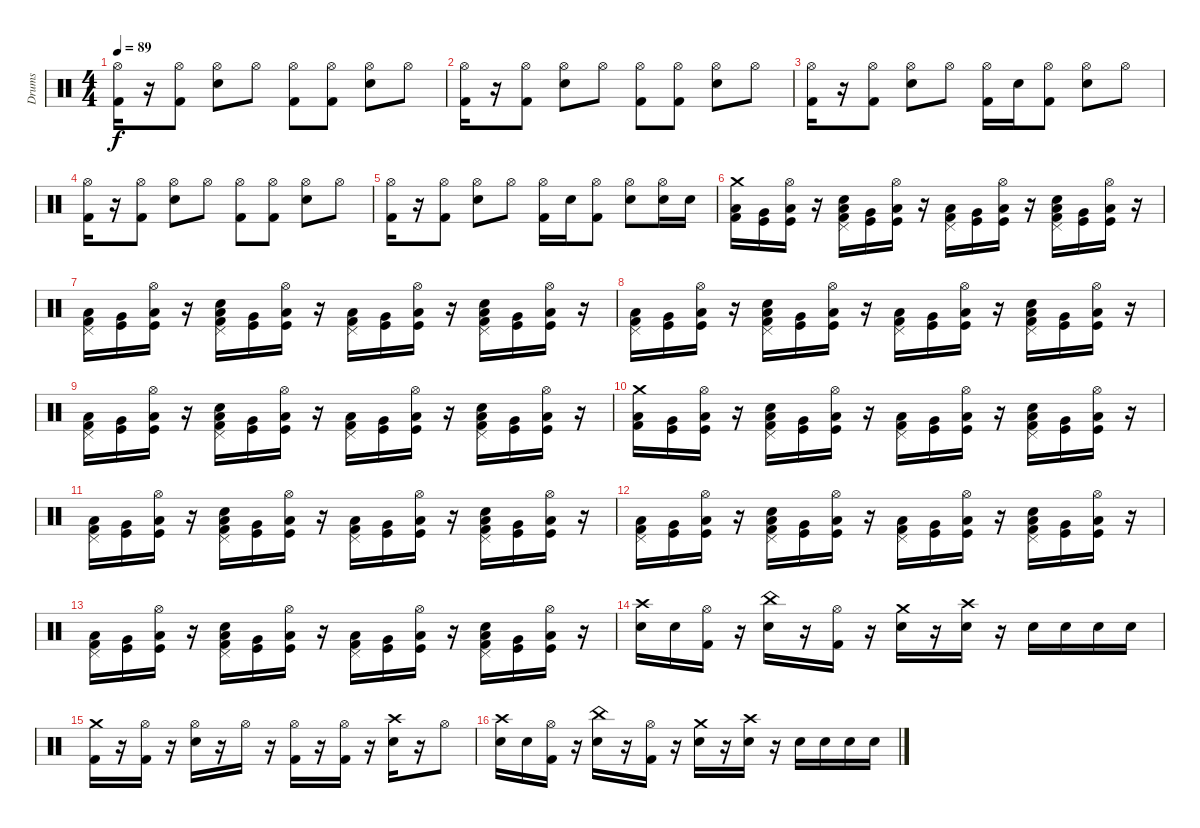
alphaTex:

\track ("Drums" "Drums") {instrument percussion}
\staff {score}
\articulation defaults
\ts (4 4)
\tempo 89
\clef neutral
\ks c
("Kick (hit) 2" "Hi-Hat (open)").16{dy f} r.16 ("Kick (hit) 2" "Hi-Hat (open)").8 ("Snare (hit) 2" "Hi-Hat (open)").8 "Hi-Hat (open)".8 ("Kick (hit) 2" "Hi-Hat (open)").8 ("Kick (hit) 2" "Hi-Hat (open)").8 ("Snare (hit) 2" "Hi-Hat (open)").8 "Hi-Hat (open)".8 |
("Kick (hit) 2" "Hi-Hat (open)").16 r.16 ("Kick (hit) 2" "Hi-Hat (open)").8 ("Snare (hit) 2" "Hi-Hat (open)").8 "Hi-Hat (open)".8 ("Kick (hit) 2" "Hi-Hat (open)").8 ("Kick (hit) 2" "Hi-Hat (open)").8 ("Snare (hit) 2" "Hi-Hat (open)").8 "Hi-Hat (open)".8 |
("Kick (hit) 2" "Hi-Hat (open)").16 r.16 ("Kick (hit) 2" "Hi-Hat (open)").8 ("Snare (hit) 2" "Hi-Hat (open)").8 "Hi-Hat (open)".8 ("Kick (hit) 2" "Hi-Hat (open)").16 "Snare (hit) 2".16 ("Kick (hit) 2" "Hi-Hat (open)").8 ("Snare (hit) 2" "Hi-Hat (open)").8 "Hi-Hat (open)".8 |
("Kick (hit) 2" "Hi-Hat (open)").16 r.16 ("Kick (hit) 2" "Hi-Hat (open)").8 ("Snare (hit) 2" "Hi-Hat (open)").8 "Hi-Hat (open)".8 ("Kick (hit) 2" "Hi-Hat (open)").8 ("Kick (hit) 2" "Hi-Hat (open)").8 ("Snare (hit) 2" "Hi-Hat (open)").8 "Hi-Hat (open)".8 |
("Kick (hit) 2" "Hi-Hat (open)").16 r.16 ("Kick (hit) 2" "Hi-Hat (open)").8 ("Snare (hit) 2" "Hi-Hat (open)").8 "Hi-Hat (open)".8 ("Kick (hit) 2" "Hi-Hat (open)").16 "Snare (hit) 2".16 ("Kick (hit) 2" "Hi-Hat (open)").8 ("Snare (hit) 2" "Hi-Hat (open)").8 ("Snare (hit) 2" "Hi-Hat (open)").16 "Snare (hit) 2".16 |
("Kick (hit) 2" "Crash medium (hit)" "Low Tom (hit)").16 ("Very Low Tom (hit)" "Kick (hit)").16 ("Hi-Hat (open)" "Low Floor Tom (hit)" "Kick (hit)").16 r.16 ("Kick (hit) 2" "Pedal Hi-Hat (hit)" "Snare (hit) 2" "Low Tom (hit)").16 ("Kick (hit)" "Very Low Tom (hit)").16 ("Hi-Hat (open)" "Kick (hit)" "Low Floor Tom (hit)").16 r.16 ("Pedal Hi-Hat (hit)" "Kick (hit) 2" "Low Tom (hit)").16 ("Kick (hit)" "Very Low Tom (hit)").16 ("Hi-Hat (open)" "Kick (hit)" "Low Floor Tom (hit)").16 r.16 ("Kick (hit) 2" "Pedal Hi-Hat (hit)" "Snare (hit) 2" "Low Tom (hit)").16 ("Kick (hit)" "Very Low Tom (hit)").16 ("Hi-Hat (open)" "Kick (hit)" "Low Floor Tom (hit)").16 r.16 |
("Kick (hit) 2" "Pedal Hi-Hat (hit)" "Low Tom (hit)").16 ("Kick (hit)" "Very Low Tom (hit)").16 ("Hi-Hat (open)" "Kick (hit)" "Low Floor Tom (hit)").16 r.16 ("Kick (hit) 2" "Pedal Hi-Hat (hit)" "Snare (hit) 2" "Low Tom (hit)").16 ("Kick (hit)" "Very Low Tom (hit)").16 ("Hi-Hat (open)" "Kick (hit)" "Low Floor Tom (hit)").16 r.16 ("Pedal Hi-Hat (hit)" "Kick (hit) 2" "Low Tom (hit)").16 ("Kick (hit)" "Very Low Tom (hit)").16 ("Hi-Hat (open)" "Kick (hit)" "Low Floor Tom (hit)").16 r.16 ("Kick (hit) 2" "Pedal Hi-Hat (hit)" "Snare (hit) 2" "Low Tom (hit)").16 ("Kick (hit)" "Very Low Tom (hit)").16 ("Hi-Hat (open)" "Kick (hit)" "Low Floor Tom (hit)").16 r.16 |
("Kick (hit) 2" "Pedal Hi-Hat (hit)" "Low Tom (hit)").16 ("Kick (hit)" "Very Low Tom (hit)").16 ("Hi-Hat (open)" "Kick (hit)" "Low Floor Tom (hit)").16 r.16 ("Kick (hit) 2" "Pedal Hi-Hat (hit)" "Snare (hit) 2" "Low Tom (hit)").16 ("Kick (hit)" "Very Low Tom (hit)").16 ("Hi-Hat (open)" "Kick (hit)" "Low Floor Tom (hit)").16 r.16 ("Pedal Hi-Hat (hit)" "Kick (hit) 2" "Low Tom (hit)").16 ("Kick (hit)" "Very Low Tom (hit)").16 ("Hi-Hat (open)" "Kick (hit)" "Low Floor Tom (hit)").16 r.16 ("Kick (hit) 2" "Pedal Hi-Hat (hit)" "Snare (hit) 2" "Low Tom (hit)").16 ("Kick (hit)" "Very Low Tom (hit)").16 ("Hi-Hat (open)" "Kick (hit)" "Low Floor Tom (hit)").16 r.16 |
("Kick (hit) 2" "Pedal Hi-Hat (hit)" "Low Tom (hit)").16 ("Kick (hit)" "Very Low Tom (hit)").16 ("Hi-Hat (open)" "Kick (hit)" "Low Floor Tom (hit)").16 r.16 ("Kick (hit) 2" "Pedal Hi-Hat (hit)" "Snare (hit) 2" "Low Tom (hit)").16 ("Kick (hit)" "Very Low Tom (hit)").16 ("Hi-Hat (open)" "Kick (hit)" "Low Floor Tom (hit)").16 r.16 ("Pedal Hi-Hat (hit)" "Kick (hit) 2" "Low Tom (hit)").16 ("Kick (hit)" "Very Low Tom (hit)").16 ("Hi-Hat (open)" "Kick (hit)" "Low Floor Tom (hit)").16 r.16 ("Kick (hit) 2" "Pedal Hi-Hat (hit)" "Snare (hit) 2" "Low Tom (hit)").16 ("Kick (hit)" "Very Low Tom (hit)").16 ("Hi-Hat (open)" "Kick (hit)" "Low Floor Tom (hit)").16 r.16 |
("Kick (hit) 2" "Crash medium (hit)" "Low Tom (hit)").16 ("Kick (hit)" "Very Low Tom (hit)").16 ("Hi-Hat (open)" "Kick (hit)" "Low Floor Tom (hit)").16 r.16 ("Kick (hit) 2" "Pedal Hi-Hat (hit)" "Snare (hit) 2" "Low Tom (hit)").16 ("Kick (hit)" "Very Low Tom (hit)").16 ("Hi-Hat (open)" "Kick (hit)" "Low Floor Tom (hit)").16 r.16 ("Pedal Hi-Hat (hit)" "Kick (hit) 2" "Low Tom (hit)").16 ("Kick (hit)" "Very Low Tom (hit)").16 ("Hi-Hat (open)" "Kick (hit)" "Low Floor Tom (hit)").16 r.16 ("Kick (hit) 2" "Pedal Hi-Hat (hit)" "Snare (hit) 2" "Low Tom (hit)").16 ("Kick (hit)" "Very Low Tom (hit)").16 ("Hi-Hat (open)" "Kick (hit)" "Low Floor Tom (hit)").16 r.16 |
("Kick (hit) 2" "Pedal Hi-Hat (hit)" "Low Tom (hit)").16 ("Very Low Tom (hit)" "Kick (hit)").16 ("Hi-Hat (open)" "Low Floor Tom (hit)" "Kick (hit)").16 r.16 ("Kick (hit) 2" "Pedal Hi-Hat (hit)" "Snare (hit) 2" "Low Tom (hit)").16 ("Kick (hit)" "Very Low Tom (hit)").16 ("Hi-Hat (open)" "Kick (hit)" "Low Floor Tom (hit)").16 r.16 ("Pedal Hi-Hat (hit)" "Kick (hit) 2" "Low Tom (hit)").16 ("Kick (hit)" "Very Low Tom (hit)").16 ("Hi-Hat (open)" "Kick (hit)" "Low Floor Tom (hit)").16 r.16 ("Kick (hit) 2" "Pedal Hi-Hat (hit)" "Snare (hit) 2" "Low Tom (hit)").16 ("Kick (hit)" "Very Low Tom (hit)").16 ("Hi-Hat (open)" "Kick (hit)" "Low Floor Tom (hit)").16 r.16 |
("Kick (hit) 2" "Pedal Hi-Hat (hit)" "Low Tom (hit)").16 ("Very Low Tom (hit)" "Kick (hit)").16 ("Hi-Hat (open)" "Low Floor Tom (hit)" "Kick (hit)").16 r.16 ("Kick (hit) 2" "Pedal Hi-Hat (hit)" "Snare (hit) 2" "Low Tom (hit)").16 ("Kick (hit)" "Very Low Tom (hit)").16 ("Hi-Hat (open)" "Kick (hit)" "Low Floor Tom (hit)").16 r.16 ("Pedal Hi-Hat (hit)" "Kick (hit) 2" "Low Tom (hit)").16 ("Kick (hit)" "Very Low Tom (hit)").16 ("Hi-Hat (open)" "Kick (hit)" "Low Floor Tom (hit)").16 r.16 ("Kick (hit) 2" "Pedal Hi-Hat (hit)" "Snare (hit) 2" "Low Tom (hit)").16 ("Kick (hit)" "Very Low Tom (hit)").16 ("Hi-Hat (open)" "Kick (hit)" "Low Floor Tom (hit)").16 r.16 |
("Kick (hit) 2" "Pedal Hi-Hat (hit)" "Low Tom (hit)").16 ("Very Low Tom (hit)" "Kick (hit)").16 ("Hi-Hat (open)" "Low Floor Tom (hit)" "Kick (hit)").16 r.16 ("Kick (hit) 2" "Pedal Hi-Hat (hit)" "Snare (hit) 2" "Low Tom (hit)").16 ("Kick (hit)" "Very Low Tom (hit)").16 ("Hi-Hat (open)" "Kick (hit)" "Low Floor Tom (hit)").16 r.16 ("Pedal Hi-Hat (hit)" "Kick (hit) 2" "Low Tom (hit)").16 ("Kick (hit)" "Very Low Tom (hit)").16 ("Hi-Hat (open)" "Kick (hit)" "Low Floor Tom (hit)").16 r.16 ("Kick (hit) 2" "Pedal Hi-Hat (hit)" "Snare (hit) 2" "Low Tom (hit)").16 ("Kick (hit)" "Very Low Tom (hit)").16 ("Hi-Hat (open)" "Kick (hit)" "Low Floor Tom (hit)").16 r.16 |
("Snare (hit) 2" "Crash high (hit)").16 "Snare (hit) 2".16 ("Hi-Hat (open)" "Kick (hit) 2").16 r.16 ("China (hit)" "Snare (hit) 2").16 r.16 ("Hi-Hat (open)" "Kick (hit) 2").16 r.16 ("Crash medium (hit)" "Snare (hit) 2").16 r.16 ("Crash high (hit)" "Snare (hit) 2").16 r.16 "Snare (hit) 2".16 "Snare (hit) 2".16 "Snare (hit) 2".16 "Snare (hit) 2".16 |
("Kick (hit) 2" "Crash medium (hit)").16 r.16 ("Hi-Hat (open)" "Kick (hit) 2").16 r.16 ("Hi-Hat (open)" "Snare (hit) 2").16 r.16 "Hi-Hat (open)".16 r.16 ("Hi-Hat (open)" "Kick (hit) 2").16 r.16 ("Hi-Hat (open)" "Kick (hit) 2").16 r.16 ("Crash high (hit)" "Snare (hit) 2").16 r.16 "Hi-Hat (open)".8 |
("Snare (hit) 2" "Crash high (hit)").16 "Snare (hit) 2".16 ("Hi-Hat (open)" "Kick (hit) 2").16 r.16 ("China (hit)" "Snare (hit) 2").16 r.16 ("Hi-Hat (open)" "Kick (hit) 2").16 r.16 ("Crash medium (hit)" "Snare (hit) 2").16 r.16 ("Crash high (hit)" "Snare (hit) 2").16 r.16 "Snare (hit) 2".16 "Snare (hit) 2".16 "Snare (hit) 2".16 "Snare (hit) 2".16
